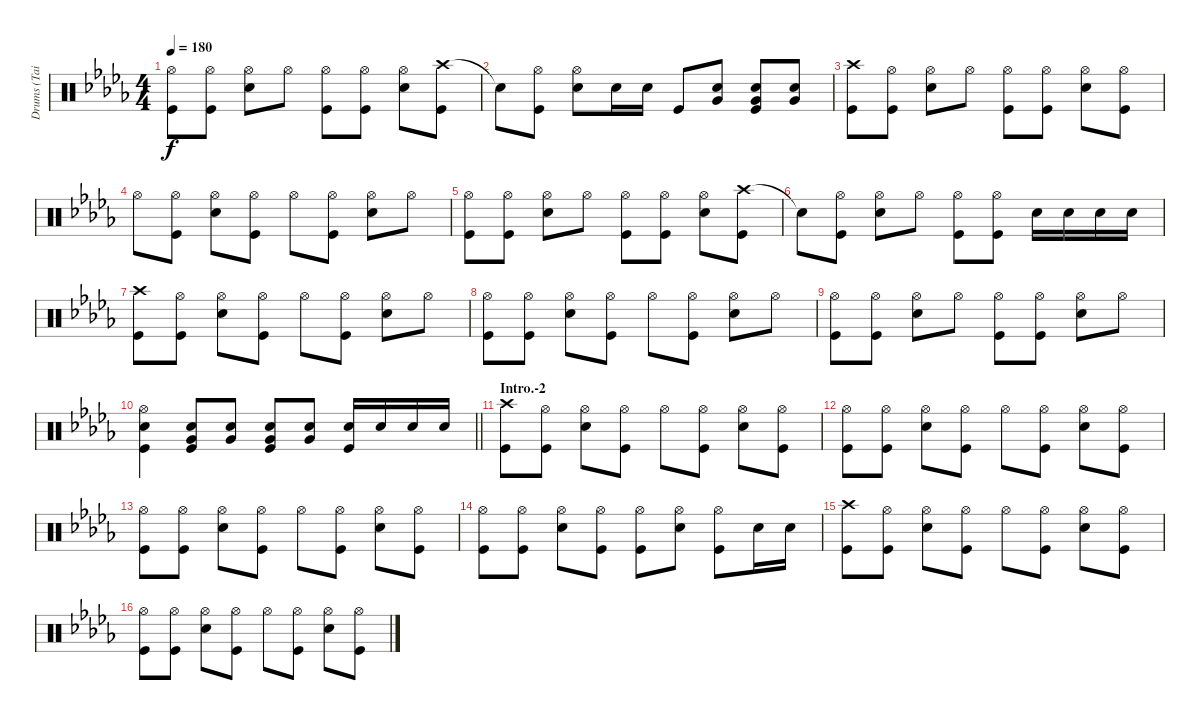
\track ("Drums (Tainaka Ritsu)" "Drums (Tai") {instrument percussion}
\staff {score}
\articulation defaults
\ts (4 4)
\tempo 180
\clef neutral
\ks db
("Hi-Hat (open)" "Kick (hit)").8{dy f} ("Hi-Hat (open)" "Kick (hit)").8 ("Hi-Hat (open)" "Snare (hit) 2").8 "Hi-Hat (open)".8 ("Hi-Hat (open)" "Kick (hit)").8 ("Hi-Hat (open)" "Kick (hit)").8 ("Hi-Hat (open)" "Snare (hit) 2").8 ("Crash high (hit)" "Kick (hit)").8 |
"Snare (hit)"{t}.8 ("Hi-Hat (open)" "Kick (hit)").8 ("Hi-Hat (open)" "Snare (hit) 2").8 "Snare (hit) 2".16 "Snare (hit) 2".16 "Kick (hit)".8 ("Snare (hit) 2" "Very Low Tom (hit)").8 ("Snare (hit) 2" "Very Low Tom (hit)" "Kick (hit)").8 ("Snare (hit) 2" "Very Low Tom (hit)").8 |
("Crash high (hit)" "Kick (hit)").8 ("Hi-Hat (open)" "Kick (hit)").8 ("Hi-Hat (open)" "Snare (hit) 2").8 "Hi-Hat (open)".8 ("Hi-Hat (open)" "Kick (hit)").8 ("Hi-Hat (open)" "Kick (hit)").8 ("Hi-Hat (open)" "Snare (hit) 2").8 ("Hi-Hat (open)" "Kick (hit)").8 |
"Hi-Hat (open)".8 ("Hi-Hat (open)" "Kick (hit)").8 ("Hi-Hat (open)" "Snare (hit) 2").8 ("Hi-Hat (open)" "Kick (hit)").8 "Hi-Hat (open)".8 ("Hi-Hat (open)" "Kick (hit)").8 ("Hi-Hat (open)" "Snare (hit) 2").8 "Hi-Hat (open)".8 |
("Hi-Hat (open)" "Kick (hit)").8 ("Hi-Hat (open)" "Kick (hit)").8 ("Hi-Hat (open)" "Snare (hit) 2").8 "Hi-Hat (open)".8 ("Hi-Hat (open)" "Kick (hit)").8 ("Hi-Hat (open)" "Kick (hit)").8 ("Hi-Hat (open)" "Snare (hit) 2").8 ("Crash high (hit)" "Kick (hit)").8 |
"Snare (hit)"{t}.8 ("Hi-Hat (open)" "Kick (hit)").8 ("Hi-Hat (open)" "Snare (hit) 2").8 "Hi-Hat (open)".8 ("Hi-Hat (open)" "Kick (hit)").8 ("Hi-Hat (open)" "Kick (hit)").8 "Snare (hit) 2".16 "Snare (hit) 2".16 "Snare (hit) 2".16 "Snare (hit) 2".16 |
("Crash high (hit)" "Kick (hit)").8 ("Hi-Hat (open)" "Kick (hit)").8 ("Hi-Hat (open)" "Snare (hit) 2").8 ("Hi-Hat (open)" "Kick (hit)").8 "Hi-Hat (open)".8 ("Hi-Hat (open)" "Kick (hit)").8 ("Hi-Hat (open)" "Snare (hit) 2").8 "Hi-Hat (open)".8 |
("Hi-Hat (open)" "Kick (hit)").8 ("Hi-Hat (open)" "Kick (hit)").8 ("Hi-Hat (open)" "Snare (hit) 2").8 ("Hi-Hat (open)" "Kick (hit)").8 "Hi-Hat (open)".8 ("Hi-Hat (open)" "Kick (hit)").8 ("Hi-Hat (open)" "Snare (hit) 2").8 "Hi-Hat (open)".8 |
("Hi-Hat (open)" "Kick (hit)").8 ("Hi-Hat (open)" "Kick (hit)").8 ("Hi-Hat (open)" "Snare (hit) 2").8 "Hi-Hat (open)".8 ("Hi-Hat (open)" "Kick (hit)").8 ("Hi-Hat (open)" "Kick (hit)").8 ("Hi-Hat (open)" "Snare (hit) 2").8 "Hi-Hat (open)".8 |
\barLineRight lightlight
("Hi-Hat (open)" "Snare (hit) 2" "Kick (hit)").4 ("Snare (hit) 2" "Very Low Tom (hit)" "Kick (hit)").8 ("Snare (hit) 2" "Very Low Tom (hit)").8 ("Snare (hit) 2" "Very Low Tom (hit)" "Kick (hit)").8 ("Snare (hit) 2" "Very Low Tom (hit)").8 ("Snare (hit) 2" "Kick (hit)").16 "Snare (hit) 2".16 "Snare (hit) 2".16 "Snare (hit) 2".16 |
\section ("" "Intro.-2")
("Crash high (hit)" "Kick (hit)").8 ("Hi-Hat (open)" "Kick (hit)").8 ("Hi-Hat (open)" "Snare (hit) 2").8 ("Hi-Hat (open)" "Kick (hit)").8 "Hi-Hat (open)".8 ("Hi-Hat (open)" "Kick (hit)").8 ("Hi-Hat (open)" "Snare (hit) 2").8 ("Hi-Hat (open)" "Kick (hit)").8 |
("Hi-Hat (open)" "Kick (hit)").8 ("Hi-Hat (open)" "Kick (hit)").8 ("Hi-Hat (open)" "Snare (hit) 2").8 ("Hi-Hat (open)" "Kick (hit)").8 "Hi-Hat (open)".8 ("Hi-Hat (open)" "Kick (hit)").8 ("Hi-Hat (open)" "Snare (hit) 2").8 ("Hi-Hat (open)" "Kick (hit)").8 |
("Hi-Hat (open)" "Kick (hit)").8 ("Hi-Hat (open)" "Kick (hit)").8 ("Hi-Hat (open)" "Snare (hit) 2").8 ("Hi-Hat (open)" "Kick (hit)").8 "Hi-Hat (open)".8 ("Hi-Hat (open)" "Kick (hit)").8 ("Hi-Hat (open)" "Snare (hit) 2").8 ("Hi-Hat (open)" "Kick (hit)").8 |
("Hi-Hat (open)" "Kick (hit)").8 ("Hi-Hat (open)" "Kick (hit)").8 ("Hi-Hat (open)" "Snare (hit) 2").8 ("Hi-Hat (open)" "Kick (hit)").8 ("Hi-Hat (open)" "Kick (hit)").8 ("Hi-Hat (open)" "Snare (hit) 2").8 ("Hi-Hat (open)" "Kick (hit)").8 "Snare (hit) 2".16 "Snare (hit) 2".16 |
("Crash high (hit)" "Kick (hit)").8 ("Hi-Hat (open)" "Kick (hit)").8 ("Hi-Hat (open)" "Snare (hit) 2").8 ("Hi-Hat (open)" "Kick (hit)").8 "Hi-Hat (open)".8 ("Hi-Hat (open)" "Kick (hit)").8 ("Hi-Hat (open)" "Snare (hit) 2").8 ("Hi-Hat (open)" "Kick (hit)").8 |
("Hi-Hat (open)" "Kick (hit)").8 ("Hi-Hat (open)" "Kick (hit)").8 ("Hi-Hat (open)" "Snare (hit) 2").8 ("Hi-Hat (open)" "Kick (hit)").8 "Hi-Hat (open)".8 ("Hi-Hat (open)" "Kick (hit)").8 ("Hi-Hat (open)" "Snare (hit) 2").8 ("Hi-Hat (open)" "Kick (hit)").8
